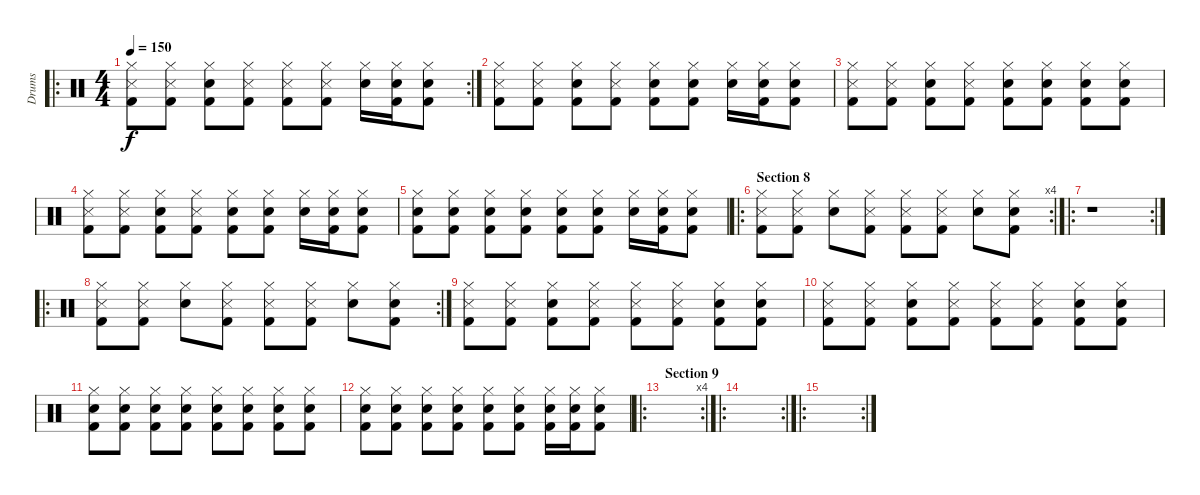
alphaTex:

\track ("Drums" "Drums") {instrument percussion}
\staff {score}
\articulation defaults
\ro
\rc 2
\ts (4 4)
\tempo 150
\clef neutral
\ks c
("Hi-Hat (closed)" "Snare (side stick) 3" "Kick (hit) 2").8{dy f} ("Hi-Hat (closed)" "Snare (side stick) 3" "Kick (hit) 2").8 ("Hi-Hat (closed)" "Snare (hit) 2" "Kick (hit) 2").8 ("Hi-Hat (closed)" "Snare (side stick) 3" "Kick (hit) 2").8 ("Hi-Hat (closed)" "Snare (side stick) 3" "Kick (hit) 2").8 ("Hi-Hat (closed)" "Snare (side stick) 3" "Kick (hit) 2").8 ("Hi-Hat (closed)" "Snare (hit) 2").16 ("Hi-Hat (closed)" "Snare (hit) 2" "Kick (hit) 2").16 ("Hi-Hat (closed)" "Snare (hit) 2" "Kick (hit) 2").8 |
("Hi-Hat (closed)" "Snare (side stick) 3" "Kick (hit) 2").8 ("Hi-Hat (closed)" "Snare (side stick) 3" "Kick (hit) 2").8 ("Hi-Hat (closed)" "Snare (hit) 2" "Kick (hit) 2").8 ("Hi-Hat (closed)" "Snare (side stick) 3" "Kick (hit) 2").8 ("Hi-Hat (closed)" "Snare (hit) 2" "Kick (hit) 2").8 ("Hi-Hat (closed)" "Snare (hit) 2" "Kick (hit) 2").8 ("Hi-Hat (closed)" "Snare (hit) 2").16 ("Hi-Hat (closed)" "Snare (hit) 2" "Kick (hit) 2").16 ("Hi-Hat (closed)" "Snare (hit) 2" "Kick (hit) 2").8 |
("Hi-Hat (closed)" "Snare (side stick) 3" "Kick (hit) 2").8 ("Hi-Hat (closed)" "Snare (side stick) 3" "Kick (hit) 2").8 ("Hi-Hat (closed)" "Snare (hit) 2" "Kick (hit) 2").8 ("Hi-Hat (closed)" "Snare (side stick) 3" "Kick (hit) 2").8 ("Hi-Hat (closed)" "Snare (hit) 2" "Kick (hit) 2").8 ("Hi-Hat (closed)" "Snare (hit) 2" "Kick (hit) 2").8 ("Hi-Hat (closed)" "Snare (hit) 2" "Kick (hit) 2").8 ("Hi-Hat (closed)" "Snare (hit) 2" "Kick (hit) 2").8 |
("Hi-Hat (closed)" "Snare (side stick) 3" "Kick (hit) 2").8 ("Hi-Hat (closed)" "Snare (side stick) 3" "Kick (hit) 2").8 ("Hi-Hat (closed)" "Snare (hit) 2" "Kick (hit) 2").8 ("Hi-Hat (closed)" "Snare (side stick) 3" "Kick (hit) 2").8 ("Hi-Hat (closed)" "Snare (hit) 2" "Kick (hit) 2").8 ("Hi-Hat (closed)" "Snare (hit) 2" "Kick (hit) 2").8 ("Hi-Hat (closed)" "Snare (hit) 2").16 ("Hi-Hat (closed)" "Snare (hit) 2" "Kick (hit) 2").16 ("Hi-Hat (closed)" "Snare (hit) 2" "Kick (hit) 2").8 |
("Hi-Hat (closed)" "Snare (hit) 2" "Kick (hit) 2").8 ("Hi-Hat (closed)" "Snare (hit) 2" "Kick (hit) 2").8 ("Hi-Hat (closed)" "Snare (hit) 2" "Kick (hit) 2").8 ("Hi-Hat (closed)" "Snare (hit) 2" "Kick (hit) 2").8 ("Hi-Hat (closed)" "Snare (hit) 2" "Kick (hit) 2").8 ("Hi-Hat (closed)" "Snare (hit) 2" "Kick (hit) 2").8 ("Hi-Hat (closed)" "Snare (hit) 2").16 ("Hi-Hat (closed)" "Snare (hit) 2" "Kick (hit) 2").16 ("Hi-Hat (closed)" "Snare (hit) 2" "Kick (hit) 2").8 |
\ro
\rc 4
\section ("" "Section 8")
("Hi-Hat (closed)" "Snare (side stick) 3" "Kick (hit) 2").8 ("Hi-Hat (closed)" "Snare (side stick) 3" "Kick (hit) 2").8 ("Hi-Hat (closed)" "Snare (hit) 2").8 ("Hi-Hat (closed)" "Snare (side stick) 3" "Kick (hit) 2").8 ("Hi-Hat (closed)" "Snare (side stick) 3" "Kick (hit) 2").8 ("Hi-Hat (closed)" "Snare (side stick) 3" "Kick (hit) 2").8 ("Hi-Hat (closed)" "Snare (hit) 2").8 ("Hi-Hat (closed)" "Snare (hit) 2" "Kick (hit) 2").8 |
\ro
\rc 2
r.1 |
\ro
\rc 2
("Hi-Hat (closed)" "Snare (side stick) 3" "Kick (hit) 2").8 ("Hi-Hat (closed)" "Snare (side stick) 3" "Kick (hit) 2").8 ("Hi-Hat (closed)" "Snare (hit) 2").8 ("Hi-Hat (closed)" "Snare (side stick) 3" "Kick (hit) 2").8 ("Hi-Hat (closed)" "Snare (side stick) 3" "Kick (hit) 2").8 ("Hi-Hat (closed)" "Snare (side stick) 3" "Kick (hit) 2").8 ("Hi-Hat (closed)" "Snare (hit) 2").8 ("Hi-Hat (closed)" "Snare (hit) 2" "Kick (hit) 2").8 |
("Hi-Hat (closed)" "Snare (side stick) 3" "Kick (hit) 2").8 ("Hi-Hat (closed)" "Snare (side stick) 3" "Kick (hit) 2").8 ("Hi-Hat (closed)" "Snare (hit) 2" "Kick (hit) 2").8 ("Hi-Hat (closed)" "Snare (side stick) 3" "Kick (hit) 2").8 ("Hi-Hat (closed)" "Snare (side stick) 3" "Kick (hit) 2").8 ("Hi-Hat (closed)" "Snare (side stick) 3" "Kick (hit) 2").8 ("Hi-Hat (closed)" "Snare (hit) 2" "Kick (hit) 2").8 ("Hi-Hat (closed)" "Snare (hit) 2" "Kick (hit) 2").8 |
("Hi-Hat (closed)" "Snare (side stick) 3" "Kick (hit) 2").8 ("Hi-Hat (closed)" "Snare (side stick) 3" "Kick (hit) 2").8 ("Hi-Hat (closed)" "Snare (hit) 2" "Kick (hit) 2").8 ("Hi-Hat (closed)" "Snare (side stick) 3" "Kick (hit) 2").8 ("Hi-Hat (closed)" "Snare (side stick) 3" "Kick (hit) 2").8 ("Hi-Hat (closed)" "Snare (side stick) 3" "Kick (hit) 2").8 ("Hi-Hat (closed)" "Snare (hit) 2" "Kick (hit) 2").8 ("Hi-Hat (closed)" "Snare (hit) 2" "Kick (hit) 2").8 |
("Hi-Hat (closed)" "Snare (hit) 2" "Kick (hit) 2").8 ("Hi-Hat (closed)" "Snare (hit) 2" "Kick (hit) 2").8 ("Hi-Hat (closed)" "Snare (hit) 2" "Kick (hit) 2").8 ("Hi-Hat (closed)" "Snare (hit) 2" "Kick (hit) 2").8 ("Hi-Hat (closed)" "Snare (hit) 2" "Kick (hit) 2").8 ("Hi-Hat (closed)" "Snare (hit) 2" "Kick (hit) 2").8 ("Hi-Hat (closed)" "Snare (hit) 2" "Kick (hit) 2").8 ("Hi-Hat (closed)" "Snare (hit) 2" "Kick (hit) 2").8 |
("Hi-Hat (closed)" "Snare (hit) 2" "Kick (hit) 2").8 ("Hi-Hat (closed)" "Snare (hit) 2" "Kick (hit) 2").8 ("Hi-Hat (closed)" "Snare (hit) 2" "Kick (hit) 2").8 ("Hi-Hat (closed)" "Snare (hit) 2" "Kick (hit) 2").8 ("Hi-Hat (closed)" "Snare (hit) 2" "Kick (hit) 2").8 ("Hi-Hat (closed)" "Snare (hit) 2" "Kick (hit) 2").8 ("Hi-Hat (closed)" "Snare (hit) 2" "Kick (hit) 2").16 ("Hi-Hat (closed)" "Snare (hit) 2" "Kick (hit) 2").16 ("Hi-Hat (closed)" "Snare (hit) 2" "Kick (hit) 2").8 |
\ro
\rc 4
\section ("" "Section 9")
|
\ro
\rc 2
|
\ro
\rc 2
